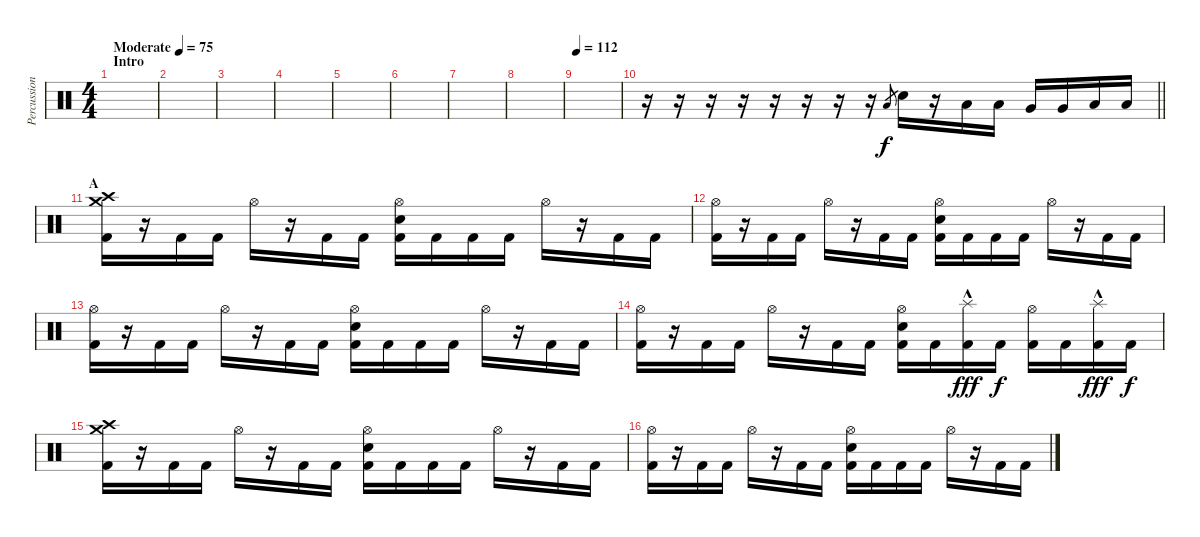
\track ("Percussion" "Percussion") {instrument percussion}
\staff {score}
\articulation defaults
\ts (4 4)
\section ("" "Intro")
\tempo (75 "Moderate")
\clef neutral
\ks c
|
|
|
|
|
|
|
|
\tempo 112
|
\barLineRight lightlight
r.16 r.16 r.16 r.16 r.16 r.16 r.16 r.16 "Low Tom (hit)".8{gr} "Electric Snare (hit)".16 r.16 "Low Tom (hit)".16 "Low Tom (hit)".16 "Very Low Tom (hit)".16 "Very Low Tom (hit)".16 "Low Floor Tom (hit)".16 "Low Floor Tom (hit)".16 |
\section ("" "A")
("Crash medium (hit)" "Crash high (hit)" "Kick (hit) 2").16 r.16 "Kick (hit) 2".16 "Kick (hit) 2".16 "Hi-Hat (open)".16 r.16 "Kick (hit) 2".16 "Kick (hit) 2".16 ("Hi-Hat (open)" "Electric Snare (hit)" "Kick (hit) 2").16 "Kick (hit) 2".16 "Kick (hit) 2".16 "Kick (hit) 2".16 "Hi-Hat (open)".16 r.16 "Kick (hit) 2".16 "Kick (hit) 2".16 |
("Hi-Hat (open)" "Kick (hit) 2").16 r.16 "Kick (hit) 2".16 "Kick (hit) 2".16 "Hi-Hat (open)".16 r.16 "Kick (hit) 2".16 "Kick (hit) 2".16 ("Hi-Hat (open)" "Electric Snare (hit)" "Kick (hit) 2").16 "Kick (hit) 2".16 "Kick (hit) 2".16 "Kick (hit) 2".16 "Hi-Hat (open)".16 r.16 "Kick (hit) 2".16 "Kick (hit) 2".16 |
("Hi-Hat (open)" "Kick (hit) 2").16 r.16 "Kick (hit) 2".16 "Kick (hit) 2".16 "Hi-Hat (open)".16 r.16 "Kick (hit) 2".16 "Kick (hit) 2".16 ("Hi-Hat (open)" "Electric Snare (hit)" "Kick (hit) 2").16 "Kick (hit) 2".16 "Kick (hit) 2".16 "Kick (hit) 2".16 "Hi-Hat (open)".16 r.16 "Kick (hit) 2".16 "Kick (hit) 2".16 |
("Hi-Hat (open)" "Kick (hit) 2").16 r.16 "Kick (hit) 2".16 "Kick (hit) 2".16 "Hi-Hat (open)".16 r.16 "Kick (hit) 2".16 "Kick (hit) 2".16 ("Hi-Hat (open)" "Electric Snare (hit)" "Kick (hit) 2").16 "Kick (hit) 2".16 ("Splash (hit)"{hac} "Kick (hit) 2").16{dy fff} "Kick (hit) 2".16{dy f} ("Hi-Hat (open)" "Kick (hit) 2").16 "Kick (hit) 2".16 ("Splash (hit)"{hac} "Kick (hit) 2").16{dy fff} "Kick (hit) 2".16{dy f} |
("Crash medium (hit)" "Crash high (hit)" "Kick (hit) 2").16 r.16 "Kick (hit) 2".16 "Kick (hit) 2".16 "Hi-Hat (open)".16 r.16 "Kick (hit) 2".16 "Kick (hit) 2".16 ("Hi-Hat (open)" "Electric Snare (hit)" "Kick (hit) 2").16 "Kick (hit) 2".16 "Kick (hit) 2".16 "Kick (hit) 2".16 "Hi-Hat (open)".16 r.16 "Kick (hit) 2".16 "Kick (hit) 2".16 |
("Hi-Hat (open)" "Kick (hit) 2").16 r.16 "Kick (hit) 2".16 "Kick (hit) 2".16 "Hi-Hat (open)".16 r.16 "Kick (hit) 2".16 "Kick (hit) 2".16 ("Hi-Hat (open)" "Electric Snare (hit)" "Kick (hit) 2").16 "Kick (hit) 2".16 "Kick (hit) 2".16 "Kick (hit) 2".16 "Hi-Hat (open)".16 r.16 "Kick (hit) 2".16 "Kick (hit) 2".16
